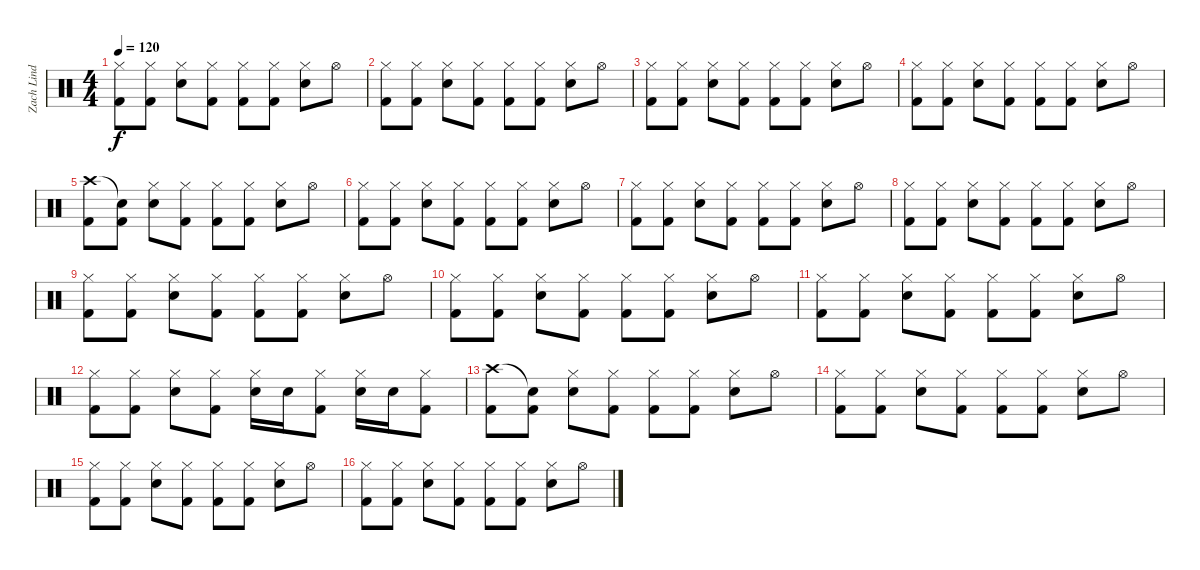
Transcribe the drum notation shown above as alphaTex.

\track ("Zach Lind (Drums)" "Zach Lind ") {instrument percussion}
\staff {score}
\articulation defaults
\ts (4 4)
\tempo 120
\clef neutral
\ks c
("Hi-Hat (closed)" "Kick (hit) 2").8{dy f} ("Hi-Hat (closed)" "Kick (hit) 2").8 ("Hi-Hat (closed)" "Electric Snare (hit)").8 ("Hi-Hat (closed)" "Kick (hit) 2").8 ("Hi-Hat (closed)" "Kick (hit) 2").8 ("Hi-Hat (closed)" "Kick (hit) 2").8 ("Hi-Hat (closed)" "Electric Snare (hit)").8 "Hi-Hat (open)".8 |
("Hi-Hat (closed)" "Kick (hit) 2").8 ("Hi-Hat (closed)" "Kick (hit) 2").8 ("Hi-Hat (closed)" "Electric Snare (hit)").8 ("Hi-Hat (closed)" "Kick (hit) 2").8 ("Hi-Hat (closed)" "Kick (hit) 2").8 ("Hi-Hat (closed)" "Kick (hit) 2").8 ("Hi-Hat (closed)" "Electric Snare (hit)").8 "Hi-Hat (open)".8 |
("Hi-Hat (closed)" "Kick (hit) 2").8 ("Hi-Hat (closed)" "Kick (hit) 2").8 ("Hi-Hat (closed)" "Electric Snare (hit)").8 ("Hi-Hat (closed)" "Kick (hit) 2").8 ("Hi-Hat (closed)" "Kick (hit) 2").8 ("Hi-Hat (closed)" "Kick (hit) 2").8 ("Hi-Hat (closed)" "Electric Snare (hit)").8 "Hi-Hat (open)".8 |
("Hi-Hat (closed)" "Kick (hit) 2").8 ("Hi-Hat (closed)" "Kick (hit) 2").8 ("Hi-Hat (closed)" "Electric Snare (hit)").8 ("Hi-Hat (closed)" "Kick (hit) 2").8 ("Hi-Hat (closed)" "Kick (hit) 2").8 ("Hi-Hat (closed)" "Kick (hit) 2").8 ("Hi-Hat (closed)" "Electric Snare (hit)").8 "Hi-Hat (open)".8 |
("Crash high (hit)" "Kick (hit) 2").8 ("Snare (hit)"{t} "Kick (hit) 2").8 ("Hi-Hat (closed)" "Electric Snare (hit)").8 ("Hi-Hat (closed)" "Kick (hit) 2").8 ("Hi-Hat (closed)" "Kick (hit) 2").8 ("Hi-Hat (closed)" "Kick (hit) 2").8 ("Hi-Hat (closed)" "Electric Snare (hit)").8 "Hi-Hat (open)".8 |
("Hi-Hat (closed)" "Kick (hit) 2").8 ("Hi-Hat (closed)" "Kick (hit) 2").8 ("Hi-Hat (closed)" "Electric Snare (hit)").8 ("Hi-Hat (closed)" "Kick (hit) 2").8 ("Hi-Hat (closed)" "Kick (hit) 2").8 ("Hi-Hat (closed)" "Kick (hit) 2").8 ("Hi-Hat (closed)" "Electric Snare (hit)").8 "Hi-Hat (open)".8 |
("Hi-Hat (closed)" "Kick (hit) 2").8 ("Hi-Hat (closed)" "Kick (hit) 2").8 ("Hi-Hat (closed)" "Electric Snare (hit)").8 ("Hi-Hat (closed)" "Kick (hit) 2").8 ("Hi-Hat (closed)" "Kick (hit) 2").8 ("Hi-Hat (closed)" "Kick (hit) 2").8 ("Hi-Hat (closed)" "Electric Snare (hit)").8 "Hi-Hat (open)".8 |
("Hi-Hat (closed)" "Kick (hit) 2").8 ("Hi-Hat (closed)" "Kick (hit) 2").8 ("Hi-Hat (closed)" "Electric Snare (hit)").8 ("Hi-Hat (closed)" "Kick (hit) 2").8 ("Hi-Hat (closed)" "Kick (hit) 2").8 ("Hi-Hat (closed)" "Kick (hit) 2").8 ("Hi-Hat (closed)" "Electric Snare (hit)").8 "Hi-Hat (open)".8 |
("Hi-Hat (closed)" "Kick (hit) 2").8 ("Hi-Hat (closed)" "Kick (hit) 2").8 ("Hi-Hat (closed)" "Electric Snare (hit)").8 ("Hi-Hat (closed)" "Kick (hit) 2").8 ("Hi-Hat (closed)" "Kick (hit) 2").8 ("Hi-Hat (closed)" "Kick (hit) 2").8 ("Hi-Hat (closed)" "Electric Snare (hit)").8 "Hi-Hat (open)".8 |
("Hi-Hat (closed)" "Kick (hit) 2").8 ("Hi-Hat (closed)" "Kick (hit) 2").8 ("Hi-Hat (closed)" "Electric Snare (hit)").8 ("Hi-Hat (closed)" "Kick (hit) 2").8 ("Hi-Hat (closed)" "Kick (hit) 2").8 ("Hi-Hat (closed)" "Kick (hit) 2").8 ("Hi-Hat (closed)" "Electric Snare (hit)").8 "Hi-Hat (open)".8 |
("Hi-Hat (closed)" "Kick (hit) 2").8 ("Hi-Hat (closed)" "Kick (hit) 2").8 ("Hi-Hat (closed)" "Electric Snare (hit)").8 ("Hi-Hat (closed)" "Kick (hit) 2").8 ("Hi-Hat (closed)" "Kick (hit) 2").8 ("Hi-Hat (closed)" "Kick (hit) 2").8 ("Hi-Hat (closed)" "Electric Snare (hit)").8 "Hi-Hat (open)".8 |
("Hi-Hat (closed)" "Kick (hit) 2").8 ("Hi-Hat (closed)" "Kick (hit) 2").8 ("Hi-Hat (closed)" "Electric Snare (hit)").8 ("Hi-Hat (closed)" "Kick (hit) 2").8 ("Hi-Hat (closed)" "Electric Snare (hit)").16 "Electric Snare (hit)".16 ("Hi-Hat (closed)" "Kick (hit) 2").8 ("Hi-Hat (closed)" "Electric Snare (hit)").16 "Electric Snare (hit)".16 ("Hi-Hat (closed)" "Kick (hit) 2").8 |
("Crash high (hit)" "Kick (hit) 2").8 ("Snare (hit)"{t} "Kick (hit) 2").8 ("Hi-Hat (closed)" "Electric Snare (hit)").8 ("Hi-Hat (closed)" "Kick (hit) 2").8 ("Hi-Hat (closed)" "Kick (hit) 2").8 ("Hi-Hat (closed)" "Kick (hit) 2").8 ("Hi-Hat (closed)" "Electric Snare (hit)").8 "Hi-Hat (open)".8 |
("Hi-Hat (closed)" "Kick (hit) 2").8 ("Hi-Hat (closed)" "Kick (hit) 2").8 ("Hi-Hat (closed)" "Electric Snare (hit)").8 ("Hi-Hat (closed)" "Kick (hit) 2").8 ("Hi-Hat (closed)" "Kick (hit) 2").8 ("Hi-Hat (closed)" "Kick (hit) 2").8 ("Hi-Hat (closed)" "Electric Snare (hit)").8 "Hi-Hat (open)".8 |
("Hi-Hat (closed)" "Kick (hit) 2").8 ("Hi-Hat (closed)" "Kick (hit) 2").8 ("Hi-Hat (closed)" "Electric Snare (hit)").8 ("Hi-Hat (closed)" "Kick (hit) 2").8 ("Hi-Hat (closed)" "Kick (hit) 2").8 ("Hi-Hat (closed)" "Kick (hit) 2").8 ("Hi-Hat (closed)" "Electric Snare (hit)").8 "Hi-Hat (open)".8 |
("Hi-Hat (closed)" "Kick (hit) 2").8 ("Hi-Hat (closed)" "Kick (hit) 2").8 ("Hi-Hat (closed)" "Electric Snare (hit)").8 ("Hi-Hat (closed)" "Kick (hit) 2").8 ("Hi-Hat (closed)" "Kick (hit) 2").8 ("Hi-Hat (closed)" "Kick (hit) 2").8 ("Hi-Hat (closed)" "Electric Snare (hit)").8 "Hi-Hat (open)".8
